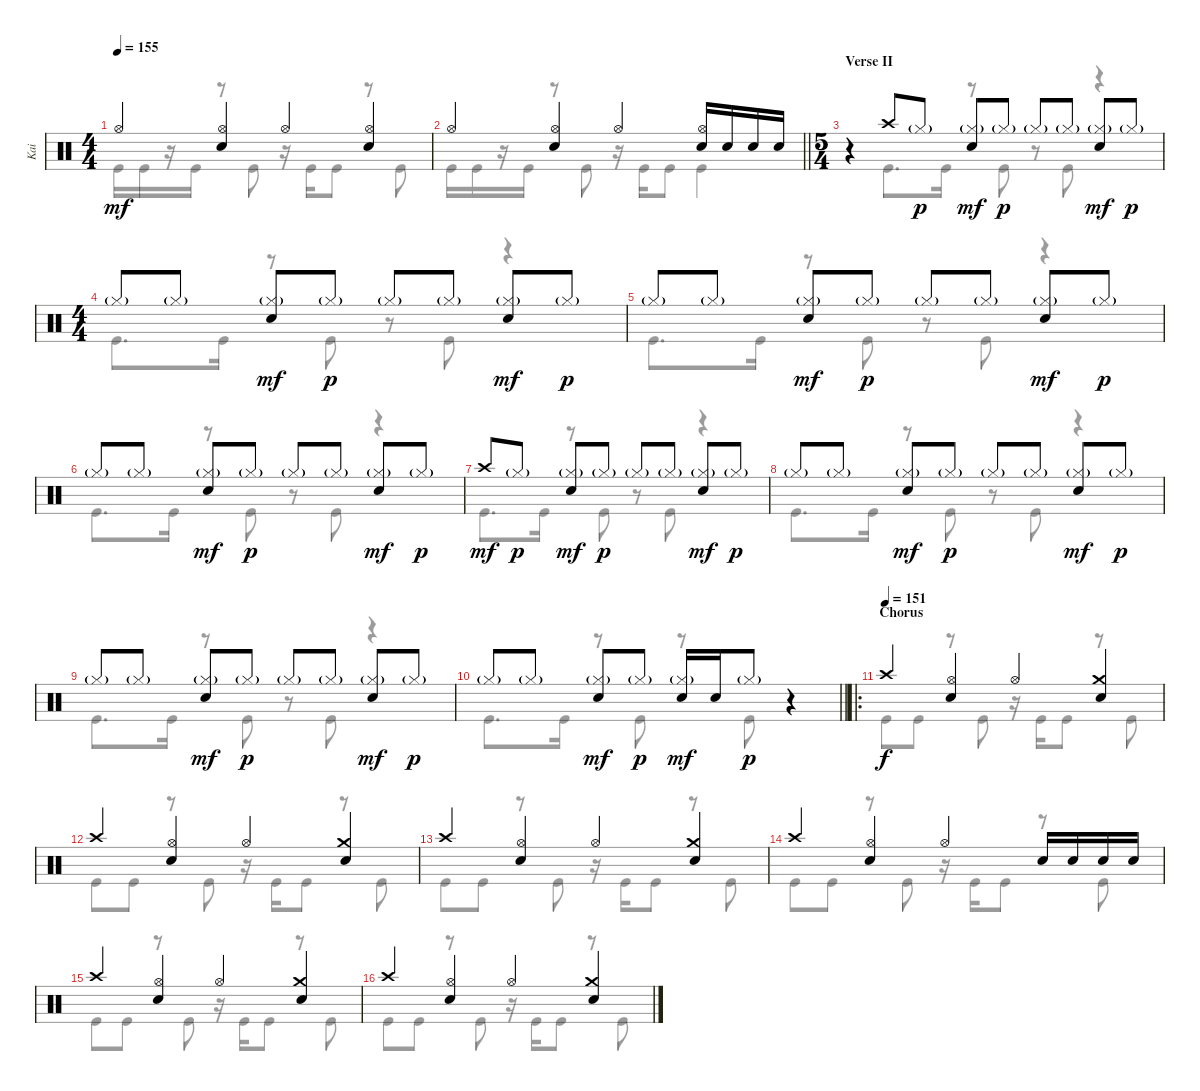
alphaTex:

\track ("Kai" "Kai") {instrument percussion}
\staff {score}
\articulation defaults
\voice
\ts (4 4)
\tempo 155
\clef neutral
\ks c "Hi-Hat (open)".4{dy mf}
("Hi-Hat (open)" "Electric Snare (hit)").4 "Hi-Hat (open)".4 ("Hi-Hat (open)" "Electric Snare (hit)").4 |
\barLineRight lightlight "Hi-Hat (open)".4
("Hi-Hat (open)" "Electric Snare (hit)").4 "Hi-Hat (open)".4 ("Hi-Hat (open)" "Electric Snare (hit)").16 "Electric Snare (hit)".16 "Electric Snare (hit)".16 "Electric Snare (hit)".16 |
\ts (5 4)
\section ("" "Verse II")
r.4 "Crash high (hit)".8 "Hi-Hat (closed)"{g}.8{dy p} ("Hi-Hat (closed)"{g} "Electric Snare (hit)").8{dy mf} "Hi-Hat (closed)"{g}.8{dy p} "Hi-Hat (closed)"{g}.8 "Hi-Hat (closed)"{g}.8 ("Hi-Hat (closed)"{g} "Electric Snare (hit)").8{dy mf} "Hi-Hat (closed)"{g}.8{dy p} |
\ts (4 4)
"Hi-Hat (closed)"{g}.8 "Hi-Hat (closed)"{g}.8 ("Hi-Hat (closed)"{g} "Electric Snare (hit)").8{dy mf} "Hi-Hat (closed)"{g}.8{dy p} "Hi-Hat (closed)"{g}.8 "Hi-Hat (closed)"{g}.8 ("Hi-Hat (closed)"{g} "Electric Snare (hit)").8{dy mf} "Hi-Hat (closed)"{g}.8{dy p} |
"Hi-Hat (closed)"{g}.8 "Hi-Hat (closed)"{g}.8 ("Hi-Hat (closed)"{g} "Electric Snare (hit)").8{dy mf} "Hi-Hat (closed)"{g}.8{dy p} "Hi-Hat (closed)"{g}.8 "Hi-Hat (closed)"{g}.8 ("Hi-Hat (closed)"{g} "Electric Snare (hit)").8{dy mf} "Hi-Hat (closed)"{g}.8{dy p} |
"Hi-Hat (closed)"{g}.8 "Hi-Hat (closed)"{g}.8 ("Hi-Hat (closed)"{g} "Electric Snare (hit)").8{dy mf} "Hi-Hat (closed)"{g}.8{dy p} "Hi-Hat (closed)"{g}.8 "Hi-Hat (closed)"{g}.8 ("Hi-Hat (closed)"{g} "Electric Snare (hit)").8{dy mf} "Hi-Hat (closed)"{g}.8{dy p} |
"Crash high (hit)".8{dy mf} "Hi-Hat (closed)"{g}.8{dy p} ("Hi-Hat (closed)"{g} "Electric Snare (hit)").8{dy mf} "Hi-Hat (closed)"{g}.8{dy p} "Hi-Hat (closed)"{g}.8 "Hi-Hat (closed)"{g}.8 ("Hi-Hat (closed)"{g} "Electric Snare (hit)").8{dy mf} "Hi-Hat (closed)"{g}.8{dy p} |
"Hi-Hat (closed)"{g}.8 "Hi-Hat (closed)"{g}.8 ("Hi-Hat (closed)"{g} "Electric Snare (hit)").8{dy mf} "Hi-Hat (closed)"{g}.8{dy p} "Hi-Hat (closed)"{g}.8 "Hi-Hat (closed)"{g}.8 ("Hi-Hat (closed)"{g} "Electric Snare (hit)").8{dy mf} "Hi-Hat (closed)"{g}.8{dy p} |
"Hi-Hat (closed)"{g}.8 "Hi-Hat (closed)"{g}.8 ("Hi-Hat (closed)"{g} "Electric Snare (hit)").8{dy mf} "Hi-Hat (closed)"{g}.8{dy p} "Hi-Hat (closed)"{g}.8 "Hi-Hat (closed)"{g}.8 ("Hi-Hat (closed)"{g} "Electric Snare (hit)").8{dy mf} "Hi-Hat (closed)"{g}.8{dy p} |
\barLineRight lightlight "Hi-Hat (closed)"{g}.8 "Hi-Hat (closed)"{g}.8
("Hi-Hat (closed)"{g} "Electric Snare (hit)").8{dy mf} "Hi-Hat (closed)"{g}.8{dy p} ("Hi-Hat (closed)"{g} "Electric Snare (hit)").16{dy mf} "Electric Snare (hit)".16 "Hi-Hat (closed)"{g}.8{dy p} r.4 |
\ro
\section ("" "Chorus")
\tempo (151)
"Crash high (hit)".4{dy f} ("Hi-Hat (open)" "Electric Snare (hit)").4 "Hi-Hat (open)".4 ("Crash medium (hit)" "Electric Snare (hit)").4 |
"Crash high (hit)".4 ("Hi-Hat (open)" "Electric Snare (hit)").4 "Hi-Hat (open)".4 ("Crash medium (hit)" "Electric Snare (hit)").4 |
"Crash high (hit)".4 ("Hi-Hat (open)" "Electric Snare (hit)").4 "Hi-Hat (open)".4 ("Crash medium (hit)" "Electric Snare (hit)").4 |
"Crash high (hit)".4 ("Hi-Hat (open)" "Electric Snare (hit)").4 "Hi-Hat (open)".4 "Electric Snare (hit)".16 "Electric Snare (hit)".16 "Electric Snare (hit)".16 "Electric Snare (hit)".16 |
"Crash high (hit)".4 ("Hi-Hat (open)" "Electric Snare (hit)").4 "Hi-Hat (open)".4 ("Crash medium (hit)" "Electric Snare (hit)").4 |
"Crash high (hit)".4 ("Hi-Hat (open)" "Electric Snare (hit)").4 "Hi-Hat (open)".4 ("Crash medium (hit)" "Electric Snare (hit)").4
\voice
\clef neutral
\ottava regular
\simile none
\ks c "Kick (hit)".16{dy mf} "Kick (hit)".16
r.16 "Kick (hit)".16 r.8 "Kick (hit)".8 r.16 "Kick (hit)".16 "Kick (hit)".8 r.8 "Kick (hit)".8 |
\barLineRight lightlight "Kick (hit)".16 "Kick (hit)".16
r.16 "Kick (hit)".16 r.8 "Kick (hit)".8 r.16 "Kick (hit)".16 "Kick (hit)".8 "Kick (hit)".4 |
r.4 "Kick (hit)".8{d} "Kick (hit)".16 r.8 "Kick (hit)".8 r.8 "Kick (hit)".8 r.4 |
"Kick (hit)".8{d} "Kick (hit)".16 r.8 "Kick (hit)".8 r.8 "Kick (hit)".8 r.4 |
"Kick (hit)".8{d} "Kick (hit)".16 r.8 "Kick (hit)".8 r.8 "Kick (hit)".8 r.4 |
"Kick (hit)".8{d} "Kick (hit)".16 r.8 "Kick (hit)".8 r.8 "Kick (hit)".8 r.4 |
"Kick (hit)".8{d} "Kick (hit)".16 r.8 "Kick (hit)".8 r.8 "Kick (hit)".8 r.4 |
"Kick (hit)".8{d} "Kick (hit)".16 r.8 "Kick (hit)".8 r.8 "Kick (hit)".8 r.4 |
"Kick (hit)".8{d} "Kick (hit)".16 r.8 "Kick (hit)".8 r.8 "Kick (hit)".8 r.4 |
\barLineRight lightlight "Kick (hit)".8{d} "Kick (hit)".16
r.8 "Kick (hit)".8 r.8 "Kick (hit)".8 r.4 |
"Kick (hit)".8{dy f} "Kick (hit)".8 r.8 "Kick (hit)".8 r.16 "Kick (hit)".16 "Kick (hit)".8 r.8 "Kick (hit)".8 |
"Kick (hit)".8 "Kick (hit)".8 r.8 "Kick (hit)".8 r.16 "Kick (hit)".16 "Kick (hit)".8 r.8 "Kick (hit)".8 |
"Kick (hit)".8 "Kick (hit)".8 r.8 "Kick (hit)".8 r.16 "Kick (hit)".16 "Kick (hit)".8 r.8 "Kick (hit)".8 |
"Kick (hit)".8 "Kick (hit)".8 r.8 "Kick (hit)".8 r.16 "Kick (hit)".16 "Kick (hit)".8 r.8 "Kick (hit)".8 |
"Kick (hit)".8 "Kick (hit)".8 r.8 "Kick (hit)".8 r.16 "Kick (hit)".16 "Kick (hit)".8 r.8 "Kick (hit)".8 |
"Kick (hit)".8 "Kick (hit)".8 r.8 "Kick (hit)".8 r.16 "Kick (hit)".16 "Kick (hit)".8 r.8 "Kick (hit)".8
